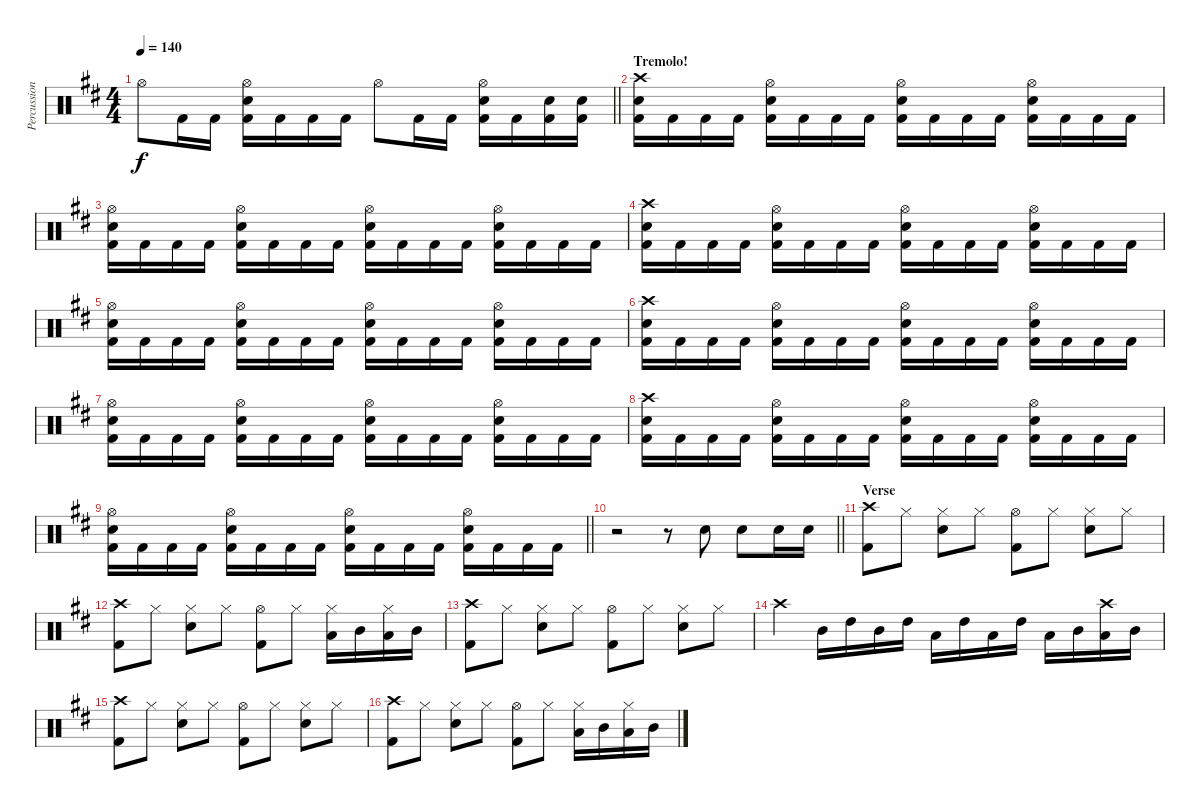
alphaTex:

\track ("Percussion" "Percussion") {instrument percussion}
\staff {score}
\articulation defaults
\ts (4 4)
\tempo 140
\clef neutral
\barLineRight lightlight
\ks bminor "Hi-Hat (open)".8{dy f} "Kick (hit) 2".16 "Kick (hit) 2".16
("Hi-Hat (open)" "Snare (hit) 2" "Kick (hit) 2").16 "Kick (hit) 2".16 "Kick (hit) 2".16 "Kick (hit) 2".16 "Hi-Hat (open)".8 "Kick (hit) 2".16 "Kick (hit) 2".16 ("Hi-Hat (open)" "Snare (hit) 2" "Kick (hit) 2").16 "Kick (hit) 2".16 ("Snare (hit) 2" "Kick (hit) 2").16 ("Snare (hit) 2" "Kick (hit) 2").16 |
\section ("" "Tremolo!")
\ks d
("Crash high (hit)" "Snare (hit) 2" "Kick (hit) 2").16 "Kick (hit) 2".16 "Kick (hit) 2".16 "Kick (hit) 2".16 ("Hi-Hat (open)" "Snare (hit) 2" "Kick (hit) 2").16 "Kick (hit) 2".16 "Kick (hit) 2".16 "Kick (hit) 2".16 ("Hi-Hat (open)" "Snare (hit) 2" "Kick (hit) 2").16 "Kick (hit) 2".16 "Kick (hit) 2".16 "Kick (hit) 2".16 ("Hi-Hat (open)" "Snare (hit) 2" "Kick (hit) 2").16 "Kick (hit) 2".16 "Kick (hit) 2".16 "Kick (hit) 2".16 |
("Hi-Hat (open)" "Snare (hit) 2" "Kick (hit) 2").16 "Kick (hit) 2".16 "Kick (hit) 2".16 "Kick (hit) 2".16 ("Hi-Hat (open)" "Snare (hit) 2" "Kick (hit) 2").16 "Kick (hit) 2".16 "Kick (hit) 2".16 "Kick (hit) 2".16 ("Hi-Hat (open)" "Snare (hit) 2" "Kick (hit) 2").16 "Kick (hit) 2".16 "Kick (hit) 2".16 "Kick (hit) 2".16 ("Hi-Hat (open)" "Snare (hit) 2" "Kick (hit) 2").16 "Kick (hit) 2".16 "Kick (hit) 2".16 "Kick (hit) 2".16 |
("Crash high (hit)" "Snare (hit) 2" "Kick (hit) 2").16 "Kick (hit) 2".16 "Kick (hit) 2".16 "Kick (hit) 2".16 ("Hi-Hat (open)" "Snare (hit) 2" "Kick (hit) 2").16 "Kick (hit) 2".16 "Kick (hit) 2".16 "Kick (hit) 2".16 ("Hi-Hat (open)" "Snare (hit) 2" "Kick (hit) 2").16 "Kick (hit) 2".16 "Kick (hit) 2".16 "Kick (hit) 2".16 ("Hi-Hat (open)" "Snare (hit) 2" "Kick (hit) 2").16 "Kick (hit) 2".16 "Kick (hit) 2".16 "Kick (hit) 2".16 |
("Hi-Hat (open)" "Snare (hit) 2" "Kick (hit) 2").16 "Kick (hit) 2".16 "Kick (hit) 2".16 "Kick (hit) 2".16 ("Hi-Hat (open)" "Snare (hit) 2" "Kick (hit) 2").16 "Kick (hit) 2".16 "Kick (hit) 2".16 "Kick (hit) 2".16 ("Hi-Hat (open)" "Snare (hit) 2" "Kick (hit) 2").16 "Kick (hit) 2".16 "Kick (hit) 2".16 "Kick (hit) 2".16 ("Hi-Hat (open)" "Snare (hit) 2" "Kick (hit) 2").16 "Kick (hit) 2".16 "Kick (hit) 2".16 "Kick (hit) 2".16 |
("Crash high (hit)" "Snare (hit) 2" "Kick (hit) 2").16 "Kick (hit) 2".16 "Kick (hit) 2".16 "Kick (hit) 2".16 ("Hi-Hat (open)" "Snare (hit) 2" "Kick (hit) 2").16 "Kick (hit) 2".16 "Kick (hit) 2".16 "Kick (hit) 2".16 ("Hi-Hat (open)" "Snare (hit) 2" "Kick (hit) 2").16 "Kick (hit) 2".16 "Kick (hit) 2".16 "Kick (hit) 2".16 ("Hi-Hat (open)" "Snare (hit) 2" "Kick (hit) 2").16 "Kick (hit) 2".16 "Kick (hit) 2".16 "Kick (hit) 2".16 |
("Hi-Hat (open)" "Snare (hit) 2" "Kick (hit) 2").16 "Kick (hit) 2".16 "Kick (hit) 2".16 "Kick (hit) 2".16 ("Hi-Hat (open)" "Snare (hit) 2" "Kick (hit) 2").16 "Kick (hit) 2".16 "Kick (hit) 2".16 "Kick (hit) 2".16 ("Hi-Hat (open)" "Snare (hit) 2" "Kick (hit) 2").16 "Kick (hit) 2".16 "Kick (hit) 2".16 "Kick (hit) 2".16 ("Hi-Hat (open)" "Snare (hit) 2" "Kick (hit) 2").16 "Kick (hit) 2".16 "Kick (hit) 2".16 "Kick (hit) 2".16 |
("Crash high (hit)" "Snare (hit) 2" "Kick (hit) 2").16 "Kick (hit) 2".16 "Kick (hit) 2".16 "Kick (hit) 2".16 ("Hi-Hat (open)" "Snare (hit) 2" "Kick (hit) 2").16 "Kick (hit) 2".16 "Kick (hit) 2".16 "Kick (hit) 2".16 ("Hi-Hat (open)" "Snare (hit) 2" "Kick (hit) 2").16 "Kick (hit) 2".16 "Kick (hit) 2".16 "Kick (hit) 2".16 ("Hi-Hat (open)" "Snare (hit) 2" "Kick (hit) 2").16 "Kick (hit) 2".16 "Kick (hit) 2".16 "Kick (hit) 2".16 |
\barLineRight lightlight
("Hi-Hat (open)" "Snare (hit) 2" "Kick (hit) 2").16 "Kick (hit) 2".16 "Kick (hit) 2".16 "Kick (hit) 2".16 ("Hi-Hat (open)" "Snare (hit) 2" "Kick (hit) 2").16 "Kick (hit) 2".16 "Kick (hit) 2".16 "Kick (hit) 2".16 ("Hi-Hat (open)" "Snare (hit) 2" "Kick (hit) 2").16 "Kick (hit) 2".16 "Kick (hit) 2".16 "Kick (hit) 2".16 ("Hi-Hat (open)" "Snare (hit) 2" "Kick (hit) 2").16 "Kick (hit) 2".16 "Kick (hit) 2".16 "Kick (hit) 2".16 |
\barLineRight lightlight
r.2 r.8 "Snare (hit) 2".8 "Snare (hit) 2".8 "Snare (hit) 2".16 "Snare (hit) 2".16 |
\section ("" "Verse")
\ks bminor
("Crash high (hit)" "Kick (hit) 2").8 "Hi-Hat (closed)".8 ("Hi-Hat (closed)" "Snare (hit) 2").8 "Hi-Hat (closed)".8 ("Hi-Hat (open)" "Kick (hit) 2").8 "Hi-Hat (closed)".8 ("Hi-Hat (closed)" "Snare (hit) 2").8 "Hi-Hat (closed)".8 |
("Crash high (hit)" "Kick (hit) 2").8 "Hi-Hat (closed)".8 ("Hi-Hat (closed)" "Snare (hit) 2").8 "Hi-Hat (closed)".8 ("Hi-Hat (open)" "Kick (hit) 2").8 "Hi-Hat (closed)".8 ("Hi-Hat (closed)" "Low Tom (hit)").16 "Mid Tom (hit)".16 ("Hi-Hat (closed)" "Low Tom (hit)").16 "Mid Tom (hit)".16 |
\ks d
("Crash high (hit)" "Kick (hit) 2").8 "Hi-Hat (closed)".8 ("Hi-Hat (closed)" "Snare (hit) 2").8 "Hi-Hat (closed)".8 ("Hi-Hat (open)" "Kick (hit) 2").8 "Hi-Hat (closed)".8 ("Hi-Hat (closed)" "Snare (hit) 2").8 "Hi-Hat (closed)".8 |
"Crash high (hit)".4 "Mid Tom (hit)".16 "High Tom (hit)".16 "Mid Tom (hit)".16 "High Tom (hit)".16 "Low Tom (hit)".16 "High Tom (hit)".16 "Low Tom (hit)".16 "High Tom (hit)".16 "Low Tom (hit)".16 "Mid Tom (hit)".16 ("Crash high (hit)" "Low Tom (hit)").16 "Mid Tom (hit)".16 |
("Crash high (hit)" "Kick (hit) 2").8 "Hi-Hat (closed)".8 ("Hi-Hat (closed)" "Snare (hit) 2").8 "Hi-Hat (closed)".8 ("Hi-Hat (open)" "Kick (hit) 2").8 "Hi-Hat (closed)".8 ("Hi-Hat (closed)" "Snare (hit) 2").8 "Hi-Hat (closed)".8 |
("Crash high (hit)" "Kick (hit) 2").8 "Hi-Hat (closed)".8 ("Hi-Hat (closed)" "Snare (hit) 2").8 "Hi-Hat (closed)".8 ("Hi-Hat (open)" "Kick (hit) 2").8 "Hi-Hat (closed)".8 ("Hi-Hat (closed)" "Low Tom (hit)").16 "Mid Tom (hit)".16 ("Hi-Hat (closed)" "Low Tom (hit)").16 "Mid Tom (hit)".16
